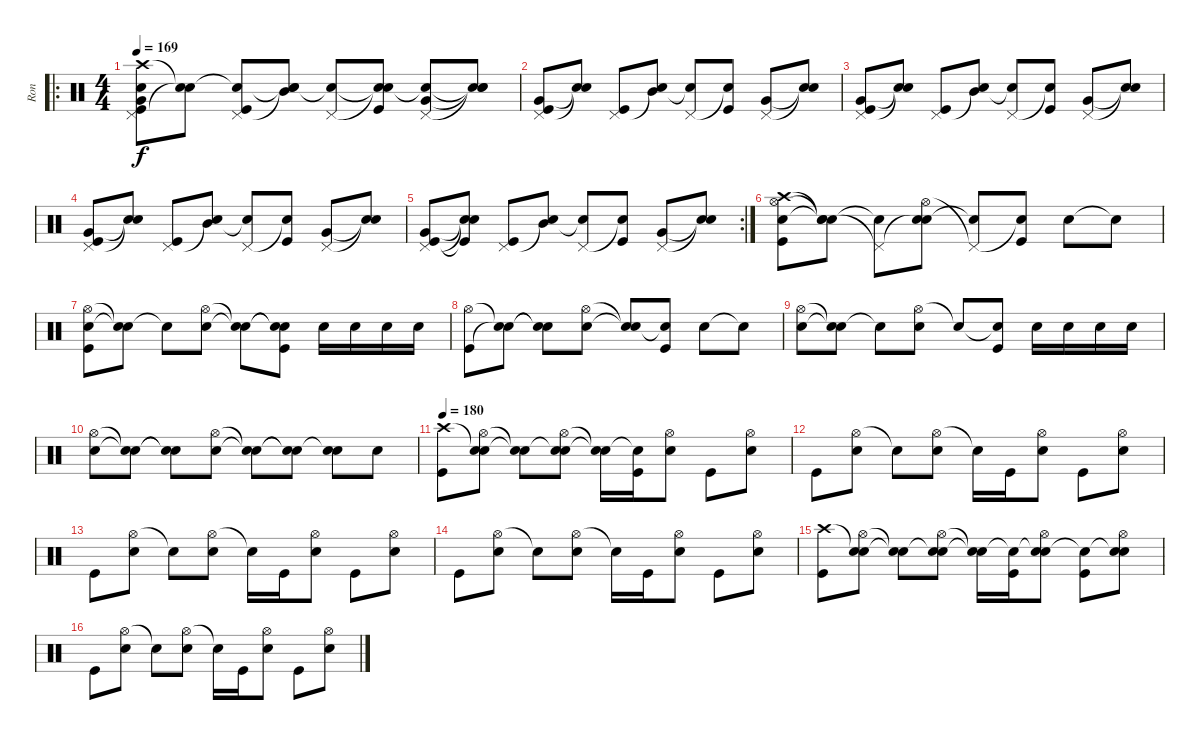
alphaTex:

\track ("Ron" "Ron") {instrument percussion}
\staff {score}
\articulation defaults
\ro
\ts (4 4)
\tempo 169
\clef neutral
\ks c
("Crash high (hit)" "Pedal Hi-Hat (hit)" "Electric Snare (hit)" "Very Low Tom (hit)" "Kick (hit)").8{dy f} ("Snare (hit)"{t} "Snare (hit)"{t}).8 ("Snare (hit)"{t} "Pedal Hi-Hat (hit)" "Kick (hit)").8 ("Snare (hit)"{t} "Snare (hit)"{t} "Mid Tom (hit)").8 ("Snare (hit)"{t} "Pedal Hi-Hat (hit)").8 ("Snare (hit)"{t} "Snare (hit)"{t} "Kick (hit)").8 ("Snare (hit)"{t} "Pedal Hi-Hat (hit)" "Very Low Tom (hit)").8 ("Snare (hit)"{t} "Snare (hit)"{t} "Snare (hit)"{t}).8 |
("Pedal Hi-Hat (hit)" "Very Low Tom (hit)" "Kick (hit)").8 ("Snare (hit)"{t} "Snare (hit)"{t}).8 ("Pedal Hi-Hat (hit)" "Kick (hit)").8 ("Snare (hit)"{t} "Mid Tom (hit)").8 ("Pedal Hi-Hat (hit)" "Snare (hit)"{t}).8 ("Snare (hit)"{t} "Kick (hit)").8 ("Pedal Hi-Hat (hit)" "Very Low Tom (hit)").8 ("Snare (hit)"{t} "Snare (hit)"{t}).8 |
("Pedal Hi-Hat (hit)" "Very Low Tom (hit)" "Kick (hit)").8 ("Snare (hit)"{t} "Snare (hit)"{t}).8 ("Pedal Hi-Hat (hit)" "Kick (hit)").8 ("Snare (hit)"{t} "Mid Tom (hit)").8 ("Pedal Hi-Hat (hit)" "Snare (hit)"{t}).8 ("Snare (hit)"{t} "Kick (hit)").8 ("Pedal Hi-Hat (hit)" "Very Low Tom (hit)").8 ("Snare (hit)"{t} "Snare (hit)"{t}).8 |
("Pedal Hi-Hat (hit)" "Very Low Tom (hit)" "Kick (hit)").8 ("Snare (hit)"{t} "Snare (hit)"{t}).8 ("Pedal Hi-Hat (hit)" "Kick (hit)").8 ("Snare (hit)"{t} "Mid Tom (hit)").8 ("Pedal Hi-Hat (hit)" "Snare (hit)"{t}).8 ("Snare (hit)"{t} "Kick (hit)").8 ("Pedal Hi-Hat (hit)" "Very Low Tom (hit)").8 ("Snare (hit)"{t} "Snare (hit)"{t}).8 |
\rc 2
("Pedal Hi-Hat (hit)" "Very Low Tom (hit)" "Kick (hit)").8 ("Snare (hit)"{t} "Snare (hit)"{t} "Kick (hit)"{t}).8 ("Pedal Hi-Hat (hit)" "Kick (hit)").8 ("Snare (hit)"{t} "Mid Tom (hit)").8 ("Pedal Hi-Hat (hit)" "Snare (hit)"{t}).8 ("Snare (hit)"{t} "Kick (hit)").8 ("Pedal Hi-Hat (hit)" "Very Low Tom (hit)").8 ("Snare (hit)"{t} "Snare (hit)"{t}).8 |
("Hi-Hat (open)" "Crash high (hit)" "Electric Snare (hit)" "Kick (hit)").8 ("Snare (hit)"{t} "Snare (hit)"{t} "Snare (hit)"{t}).8 ("Snare (hit)"{t} "Pedal Hi-Hat (hit)"{t}).8 ("Hi-Hat (open)" "Snare (hit)"{t} "Electric Snare (hit)").8 ("Pedal Hi-Hat (hit)"{t} "Snare (hit)"{t}).8 ("Snare (hit)"{t} "Kick (hit)").8 "Electric Snare (hit)".8 "Snare (hit)"{t}.8 |
("Hi-Hat (open)" "Electric Snare (hit)" "Kick (hit)").8 ("Snare (hit)"{t} "Snare (hit)"{t}).8 "Snare (hit)"{t}.8 ("Hi-Hat (open)" "Electric Snare (hit)").8 ("Snare (hit)"{t} "Snare (hit)"{t}).8 ("Snare (hit)"{t} "Electric Snare (hit)"{t} "Kick (hit)").8 "Electric Snare (hit)".16 "Electric Snare (hit)".16 "Electric Snare (hit)".16 "Electric Snare (hit)".16 |
("Hi-Hat (open)" "Kick (hit)").8 ("Snare (hit)"{t} "Snare (hit)"{t}).8 ("Snare (hit)"{t} "Snare (hit)"{t}).8 ("Hi-Hat (open)" "Electric Snare (hit)").8 ("Snare (hit)"{t} "Snare (hit)"{t}).8 ("Snare (hit)"{t} "Kick (hit)").8 "Electric Snare (hit)".8 "Snare (hit)"{t}.8 |
("Hi-Hat (open)" "Electric Snare (hit)").8 ("Snare (hit)"{t} "Snare (hit)"{t}).8 "Snare (hit)"{t}.8 ("Hi-Hat (open)" "Electric Snare (hit)").8 "Snare (hit)"{t}.8 ("Snare (hit)"{t} "Kick (hit)").8 "Electric Snare (hit)".16 "Electric Snare (hit)".16 "Electric Snare (hit)".16 "Electric Snare (hit)".16 |
("Hi-Hat (open)" "Electric Snare (hit)").8 ("Snare (hit)"{t} "Snare (hit)"{t}).8 ("Snare (hit)"{t} "Snare (hit)"{t}).8 ("Hi-Hat (open)" "Electric Snare (hit)").8 ("Snare (hit)"{t} "Snare (hit)"{t}).8 ("Snare (hit)"{t} "Snare (hit)"{t}).8 ("Snare (hit)"{t} "Electric Snare (hit)").8 "Electric Snare (hit)".8 |
\tempo 180
("Crash high (hit)" "Kick (hit)").8 ("Snare (hit)"{t} "Hi-Hat (open)" "Electric Snare (hit)").8 ("Snare (hit)"{t} "Snare (hit)"{t}).8 ("Snare (hit)"{t} "Hi-Hat (open)" "Electric Snare (hit)").8 ("Snare (hit)"{t} "Snare (hit)"{t}).16 ("Snare (hit)"{t} "Kick (hit)").16 ("Hi-Hat (open)" "Electric Snare (hit)").8 "Kick (hit)".8 ("Hi-Hat (open)" "Electric Snare (hit)").8 |
"Kick (hit)".8 ("Hi-Hat (open)" "Electric Snare (hit)").8 "Snare (hit)"{t}.8 ("Hi-Hat (open)" "Electric Snare (hit)").8 "Snare (hit)"{t}.16 "Kick (hit)".16 ("Hi-Hat (open)" "Electric Snare (hit)").8 "Kick (hit)".8 ("Hi-Hat (open)" "Electric Snare (hit)").8 |
"Kick (hit)".8 ("Hi-Hat (open)" "Electric Snare (hit)").8 "Snare (hit)"{t}.8 ("Hi-Hat (open)" "Electric Snare (hit)").8 "Snare (hit)"{t}.16 "Kick (hit)".16 ("Hi-Hat (open)" "Electric Snare (hit)").8 "Kick (hit)".8 ("Hi-Hat (open)" "Electric Snare (hit)").8 |
"Kick (hit)".8 ("Hi-Hat (open)" "Electric Snare (hit)").8 "Snare (hit)"{t}.8 ("Hi-Hat (open)" "Electric Snare (hit)").8 "Snare (hit)"{t}.16 "Kick (hit)".16 ("Hi-Hat (open)" "Electric Snare (hit)").8 "Kick (hit)".8 ("Hi-Hat (open)" "Electric Snare (hit)").8 |
("Crash high (hit)" "Kick (hit)").8 ("Snare (hit)"{t} "Hi-Hat (open)" "Electric Snare (hit)").8 ("Snare (hit)"{t} "Snare (hit)"{t}).8 ("Snare (hit)"{t} "Hi-Hat (open)" "Electric Snare (hit)").8 ("Snare (hit)"{t} "Snare (hit)"{t}).16 ("Snare (hit)"{t} "Kick (hit)").16 ("Snare (hit)"{t} "Hi-Hat (open)" "Electric Snare (hit)").8 ("Snare (hit)"{t} "Kick (hit)").8 ("Snare (hit)"{t} "Hi-Hat (open)" "Electric Snare (hit)").8 |
"Kick (hit)".8 ("Hi-Hat (open)" "Electric Snare (hit)").8 "Snare (hit)"{t}.8 ("Hi-Hat (open)" "Electric Snare (hit)").8 "Snare (hit)"{t}.16 "Kick (hit)".16 ("Hi-Hat (open)" "Electric Snare (hit)").8 "Kick (hit)".8 ("Hi-Hat (open)" "Electric Snare (hit)").8
